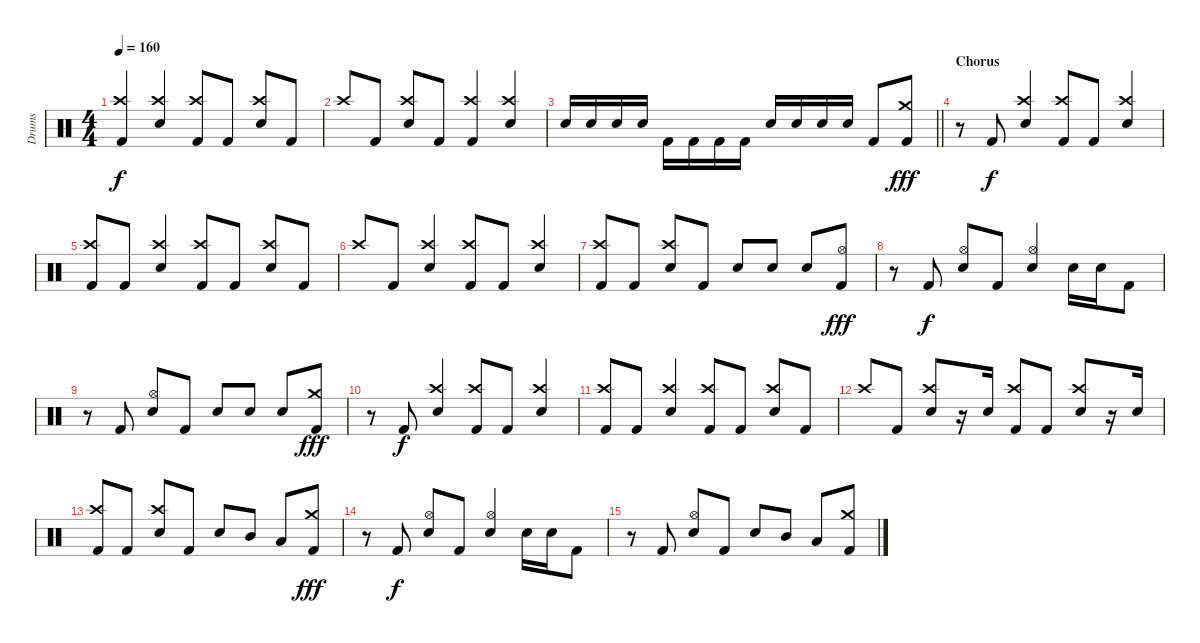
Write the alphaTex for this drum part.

\track ("Drums" "Drums") {solo instrument percussion}
\staff {score}
\articulation defaults
\ts (4 4)
\tempo 160
\clef neutral
\ks c
("Crash high (hit)" "Kick (hit) 2").4{dy f beam Up} ("Crash high (hit)" "Snare (hit) 2").4{beam Up} ("Crash high (hit)" "Kick (hit) 2").8{beam Up} "Kick (hit) 2".8{beam Up} ("Crash high (hit)" "Snare (hit) 2").8{beam Up} "Kick (hit) 2".8{beam Up} |
"Crash high (hit)".8{beam Up} "Kick (hit) 2".8{beam Up} ("Crash high (hit)" "Snare (hit) 2").8{beam Up} "Kick (hit) 2".8{beam Up} ("Crash high (hit)" "Kick (hit) 2").4{beam Up} ("Crash high (hit)" "Snare (hit) 2").4{beam Up} |
\barLineRight lightlight "Snare (hit) 2".16{beam Up} "Snare (hit) 2".16{beam Up} "Snare (hit) 2".16{beam Up} "Snare (hit) 2".16{beam Up} "Kick (hit) 2".16{beam Down} "Kick (hit) 2".16{beam Down} "Kick (hit) 2".16{beam Down} "Kick (hit) 2".16{beam Down} "Snare (hit) 2".16{beam Up} "Snare (hit) 2".16{beam Up} "Snare (hit) 2".16{beam Up} "Snare (hit) 2".16{beam Up} "Kick (hit) 2".8{beam Up}
("Crash medium (hit)" "Kick (hit) 2").8{dy fff beam Up} |
\section ("" "Chorus")
r.8{beam Up} "Kick (hit) 2".8{dy f beam Down} ("Crash high (hit)" "Snare (hit) 2").4{beam Up} ("Crash high (hit)" "Kick (hit) 2").8{beam Up} "Kick (hit) 2".8{beam Up} ("Crash high (hit)" "Snare (hit) 2").4{beam Up} |
("Crash high (hit)" "Kick (hit) 2").8{beam Up} "Kick (hit) 2".8{beam Up} ("Crash high (hit)" "Snare (hit) 2").4{beam Up} ("Crash high (hit)" "Kick (hit) 2").8{beam Up} "Kick (hit) 2".8{beam Up} ("Crash high (hit)" "Snare (hit) 2").8{beam Up} "Kick (hit) 2".8{beam Up} |
"Crash high (hit)".8{beam Up} "Kick (hit) 2".8{beam Up} ("Crash high (hit)" "Snare (hit) 2").4{beam Up} ("Crash high (hit)" "Kick (hit) 2").8{beam Up} "Kick (hit) 2".8{beam Up} ("Crash high (hit)" "Snare (hit) 2").4{beam Up} |
("Crash high (hit)" "Kick (hit) 2").8{beam Up} "Kick (hit) 2".8{beam Up} ("Crash high (hit)" "Snare (hit) 2").8{beam Up} "Kick (hit) 2".8{beam Up} "Snare (hit) 2".8{beam Up} "Snare (hit) 2".8{beam Up} "Snare (hit) 2".8{beam Up} ("Hi-Hat (open)" "Kick (hit) 2").8{dy fff beam Up} |
r.8{beam Up} "Kick (hit) 2".8{dy f beam Down} ("Hi-Hat (open)" "Snare (hit) 2").8{beam Up} "Kick (hit) 2".8{beam Up} ("Hi-Hat (open)" "Snare (hit) 2").4{beam Up} "Snare (hit) 2".16{beam Down} "Snare (hit) 2".16{beam Down} "Kick (hit) 2".8{beam Down} |
r.8{beam Up} "Kick (hit) 2".8{beam Down} ("Hi-Hat (open)" "Snare (hit) 2").8{beam Up} "Kick (hit) 2".8{beam Up} "Snare (hit) 2".8{beam Up} "Snare (hit) 2".8{beam Up} "Snare (hit) 2".8{beam Up} ("Crash medium (hit)" "Kick (hit) 2").8{dy fff beam Up} |
r.8{beam Up} "Kick (hit) 2".8{dy f beam Down} ("Crash high (hit)" "Snare (hit) 2").4{beam Up} ("Crash high (hit)" "Kick (hit) 2").8{beam Up} "Kick (hit) 2".8{beam Up} ("Crash high (hit)" "Snare (hit) 2").4{beam Up} |
("Crash high (hit)" "Kick (hit) 2").8{beam Up} "Kick (hit) 2".8{beam Up} ("Crash high (hit)" "Snare (hit) 2").4{beam Up} ("Crash high (hit)" "Kick (hit) 2").8{beam Up} "Kick (hit) 2".8{beam Up} ("Crash high (hit)" "Snare (hit) 2").8{beam Up} "Kick (hit) 2".8{beam Up} |
"Crash high (hit)".8{beam Up} "Kick (hit) 2".8{beam Up} ("Crash high (hit)" "Snare (hit) 2").8{beam Up} r.16 "Snare (hit) 2".16{beam Up} ("Crash high (hit)" "Kick (hit) 2").8{beam Up} "Kick (hit) 2".8{beam Up} ("Crash high (hit)" "Snare (hit) 2").8{beam Up} r.16 "Snare (hit) 2".16{beam Up} |
("Crash high (hit)" "Kick (hit) 2").8{beam Up} "Kick (hit) 2".8{beam Up} ("Crash high (hit)" "Snare (hit) 2").8{beam Up} "Kick (hit) 2".8{beam Up} "Snare (hit) 2".8{beam Up} "Mid Tom (hit)".8{beam Up} "Low Tom (hit)".8{beam Up} ("Crash medium (hit)" "Kick (hit) 2").8{dy fff beam Up} |
r.8{beam Up} "Kick (hit) 2".8{dy f beam Down} ("Hi-Hat (open)" "Snare (hit) 2").8{beam Up} "Kick (hit) 2".8{beam Up} ("Hi-Hat (open)" "Snare (hit) 2").4{beam Up} "Snare (hit) 2".16{beam Down} "Snare (hit) 2".16{beam Down} "Kick (hit) 2".8{beam Down} |
r.8{beam Up} "Kick (hit) 2".8{beam Down} ("Hi-Hat (open)" "Snare (hit) 2").8{beam Up} "Kick (hit) 2".8{beam Up} "Snare (hit) 2".8{beam Up} "Mid Tom (hit)".8{beam Up} "Low Tom (hit)".8{beam Up} ("Crash medium (hit)" "Kick (hit) 2").8{beam Up}
